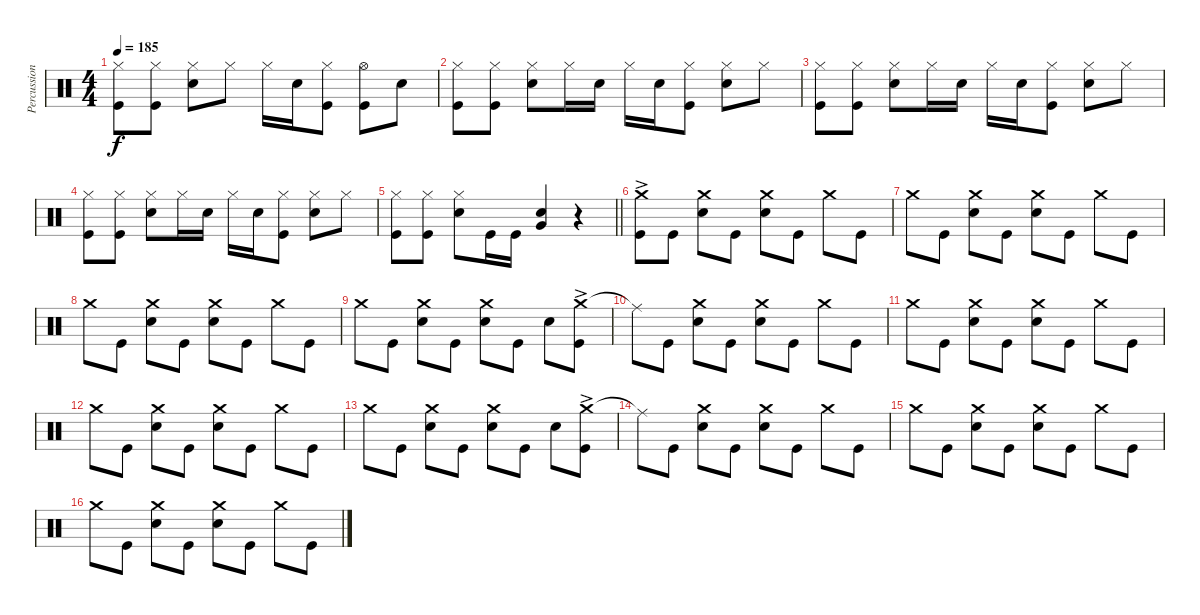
\track ("Percussion" "Percussion") {instrument percussion}
\staff {score}
\articulation defaults
\ts (4 4)
\tempo 185
\clef neutral
\ks c
("Hi-Hat (closed)" "Kick (hit)").8{dy f} ("Hi-Hat (closed)" "Kick (hit)").8 ("Hi-Hat (closed)" "Electric Snare (hit)").8 "Hi-Hat (closed)".8 "Hi-Hat (closed)".16 "Electric Snare (hit)".16 ("Hi-Hat (closed)" "Kick (hit)").8 ("Hi-Hat (open)" "Kick (hit)").8 "Electric Snare (hit)".8 |
("Hi-Hat (closed)" "Kick (hit)").8 ("Hi-Hat (closed)" "Kick (hit)").8 ("Hi-Hat (closed)" "Electric Snare (hit)").8 "Hi-Hat (closed)".16 "Electric Snare (hit)".16 "Hi-Hat (closed)".16 "Electric Snare (hit)".16 ("Hi-Hat (closed)" "Kick (hit)").8 ("Hi-Hat (closed)" "Electric Snare (hit)").8 "Hi-Hat (closed)".8 |
("Hi-Hat (closed)" "Kick (hit)").8 ("Hi-Hat (closed)" "Kick (hit)").8 ("Hi-Hat (closed)" "Electric Snare (hit)").8 "Hi-Hat (closed)".16 "Electric Snare (hit)".16 "Hi-Hat (closed)".16 "Electric Snare (hit)".16 ("Hi-Hat (closed)" "Kick (hit)").8 ("Hi-Hat (closed)" "Electric Snare (hit)").8 "Hi-Hat (closed)".8 |
("Hi-Hat (closed)" "Kick (hit)").8 ("Hi-Hat (closed)" "Kick (hit)").8 ("Hi-Hat (closed)" "Electric Snare (hit)").8 "Hi-Hat (closed)".16 "Electric Snare (hit)".16 "Hi-Hat (closed)".16 "Electric Snare (hit)".16 ("Hi-Hat (closed)" "Kick (hit)").8 ("Hi-Hat (closed)" "Electric Snare (hit)").8 "Hi-Hat (closed)".8 |
\barLineRight lightlight
("Hi-Hat (closed)" "Kick (hit)").8 ("Hi-Hat (closed)" "Kick (hit)").8 ("Hi-Hat (closed)" "Electric Snare (hit)").8 "Kick (hit)".16 "Kick (hit)".16 ("Electric Snare (hit)" "Very Low Tom (hit)").4 r.4 |
("Crash medium (hit)"{ac} "Kick (hit)").8 "Kick (hit)".8 ("Crash medium (hit)" "Electric Snare (hit)").8 "Kick (hit)".8 ("Crash medium (hit)" "Electric Snare (hit)").8 "Kick (hit)".8 "Crash medium (hit)".8 "Kick (hit)".8 |
"Crash medium (hit)".8 "Kick (hit)".8 ("Crash medium (hit)" "Electric Snare (hit)").8 "Kick (hit)".8 ("Crash medium (hit)" "Electric Snare (hit)").8 "Kick (hit)".8 "Crash medium (hit)".8 "Kick (hit)".8 |
"Crash medium (hit)".8 "Kick (hit)".8 ("Crash medium (hit)" "Electric Snare (hit)").8 "Kick (hit)".8 ("Crash medium (hit)" "Electric Snare (hit)").8 "Kick (hit)".8 "Crash medium (hit)".8 "Kick (hit)".8 |
"Crash medium (hit)".8 "Kick (hit)".8 ("Crash medium (hit)" "Electric Snare (hit)").8 "Kick (hit)".8 ("Crash medium (hit)" "Electric Snare (hit)").8 "Kick (hit)".8 "Electric Snare (hit)".8 ("Crash medium (hit)"{ac} "Kick (hit)").8 |
"Ride (middle)"{t}.8 "Kick (hit)".8 ("Crash medium (hit)" "Electric Snare (hit)").8 "Kick (hit)".8 ("Crash medium (hit)" "Electric Snare (hit)").8 "Kick (hit)".8 "Crash medium (hit)".8 "Kick (hit)".8 |
"Crash medium (hit)".8 "Kick (hit)".8 ("Crash medium (hit)" "Electric Snare (hit)").8 "Kick (hit)".8 ("Crash medium (hit)" "Electric Snare (hit)").8 "Kick (hit)".8 "Crash medium (hit)".8 "Kick (hit)".8 |
"Crash medium (hit)".8 "Kick (hit)".8 ("Crash medium (hit)" "Electric Snare (hit)").8 "Kick (hit)".8 ("Crash medium (hit)" "Electric Snare (hit)").8 "Kick (hit)".8 "Crash medium (hit)".8 "Kick (hit)".8 |
"Crash medium (hit)".8 "Kick (hit)".8 ("Crash medium (hit)" "Electric Snare (hit)").8 "Kick (hit)".8 ("Crash medium (hit)" "Electric Snare (hit)").8 "Kick (hit)".8 "Electric Snare (hit)".8 ("Crash medium (hit)"{ac} "Kick (hit)").8 |
"Ride (middle)"{t}.8 "Kick (hit)".8 ("Crash medium (hit)" "Electric Snare (hit)").8 "Kick (hit)".8 ("Crash medium (hit)" "Electric Snare (hit)").8 "Kick (hit)".8 "Crash medium (hit)".8 "Kick (hit)".8 |
"Crash medium (hit)".8 "Kick (hit)".8 ("Crash medium (hit)" "Electric Snare (hit)").8 "Kick (hit)".8 ("Crash medium (hit)" "Electric Snare (hit)").8 "Kick (hit)".8 "Crash medium (hit)".8 "Kick (hit)".8 |
"Crash medium (hit)".8 "Kick (hit)".8 ("Crash medium (hit)" "Electric Snare (hit)").8 "Kick (hit)".8 ("Crash medium (hit)" "Electric Snare (hit)").8 "Kick (hit)".8 "Crash medium (hit)".8 "Kick (hit)".8
